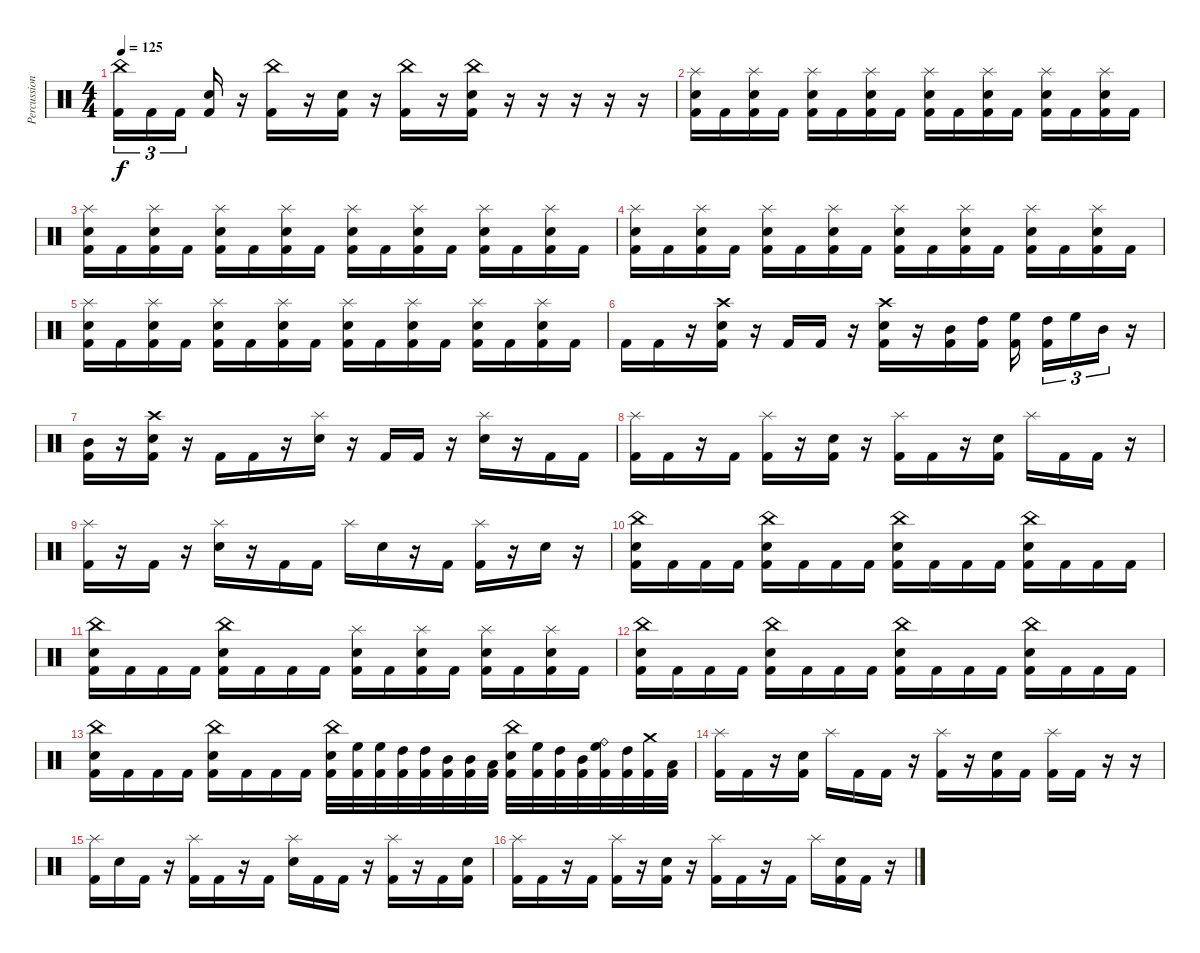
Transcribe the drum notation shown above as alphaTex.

\track ("Percussion" "Percussion") {instrument percussion}
\staff {score}
\articulation defaults
\ts (4 4)
\tempo 125
\clef neutral
\ks c
("China (hit)" "Kick (hit) 2").16{tu (3 2) dy f} "Kick (hit) 2".16{tu (3 2)} "Kick (hit) 2".16{tu (3 2) beam splitsecondary} ("Electric Snare (hit)" "Kick (hit) 2").16 r.16 ("China (hit)" "Kick (hit) 2").16 r.16 ("Electric Snare (hit)" "Kick (hit) 2").16 r.16 ("China (hit)" "Kick (hit) 2").16 r.16 ("China (hit)" "Electric Snare (hit)" "Kick (hit) 2").16 r.16 r.16 r.16 r.16 r.16 |
("Splash (hit)" "Electric Snare (hit)" "Kick (hit) 2").16 "Kick (hit) 2".16 ("Splash (hit)" "Electric Snare (hit)" "Kick (hit) 2").16 "Kick (hit) 2".16 ("Splash (hit)" "Electric Snare (hit)" "Kick (hit) 2").16 "Kick (hit) 2".16 ("Splash (hit)" "Electric Snare (hit)" "Kick (hit) 2").16 "Kick (hit) 2".16 ("Splash (hit)" "Electric Snare (hit)" "Kick (hit) 2").16 "Kick (hit) 2".16 ("Splash (hit)" "Electric Snare (hit)" "Kick (hit) 2").16 "Kick (hit) 2".16 ("Splash (hit)" "Electric Snare (hit)" "Kick (hit) 2").16 "Kick (hit) 2".16 ("Splash (hit)" "Electric Snare (hit)" "Kick (hit) 2").16 "Kick (hit) 2".16 |
("Splash (hit)" "Electric Snare (hit)" "Kick (hit) 2").16 "Kick (hit) 2".16 ("Splash (hit)" "Electric Snare (hit)" "Kick (hit) 2").16 "Kick (hit) 2".16 ("Splash (hit)" "Electric Snare (hit)" "Kick (hit) 2").16 "Kick (hit) 2".16 ("Splash (hit)" "Electric Snare (hit)" "Kick (hit) 2").16 "Kick (hit) 2".16 ("Splash (hit)" "Electric Snare (hit)" "Kick (hit) 2").16 "Kick (hit) 2".16 ("Splash (hit)" "Electric Snare (hit)" "Kick (hit) 2").16 "Kick (hit) 2".16 ("Splash (hit)" "Electric Snare (hit)" "Kick (hit) 2").16 "Kick (hit) 2".16 ("Splash (hit)" "Electric Snare (hit)" "Kick (hit) 2").16 "Kick (hit) 2".16 |
("Splash (hit)" "Electric Snare (hit)" "Kick (hit) 2").16 "Kick (hit) 2".16 ("Splash (hit)" "Electric Snare (hit)" "Kick (hit) 2").16 "Kick (hit) 2".16 ("Splash (hit)" "Electric Snare (hit)" "Kick (hit) 2").16 "Kick (hit) 2".16 ("Splash (hit)" "Electric Snare (hit)" "Kick (hit) 2").16 "Kick (hit) 2".16 ("Splash (hit)" "Electric Snare (hit)" "Kick (hit) 2").16 "Kick (hit) 2".16 ("Splash (hit)" "Electric Snare (hit)" "Kick (hit) 2").16 "Kick (hit) 2".16 ("Splash (hit)" "Electric Snare (hit)" "Kick (hit) 2").16 "Kick (hit) 2".16 ("Splash (hit)" "Electric Snare (hit)" "Kick (hit) 2").16 "Kick (hit) 2".16 |
("Splash (hit)" "Electric Snare (hit)" "Kick (hit) 2").16 "Kick (hit) 2".16 ("Splash (hit)" "Electric Snare (hit)" "Kick (hit) 2").16 "Kick (hit) 2".16 ("Splash (hit)" "Electric Snare (hit)" "Kick (hit) 2").16 "Kick (hit) 2".16 ("Splash (hit)" "Electric Snare (hit)" "Kick (hit) 2").16 "Kick (hit) 2".16 ("Splash (hit)" "Electric Snare (hit)" "Kick (hit) 2").16 "Kick (hit) 2".16 ("Splash (hit)" "Electric Snare (hit)" "Kick (hit) 2").16 "Kick (hit) 2".16 ("Splash (hit)" "Electric Snare (hit)" "Kick (hit) 2").16 "Kick (hit) 2".16 ("Splash (hit)" "Electric Snare (hit)" "Kick (hit) 2").16 "Kick (hit) 2".16 |
"Kick (hit) 2".16 "Kick (hit) 2".16 r.16 ("Crash high (hit)" "Electric Snare (hit)" "Kick (hit) 2").16 r.16 "Kick (hit) 2".16 "Kick (hit) 2".16 r.16 ("Crash high (hit)" "Electric Snare (hit)" "Kick (hit) 2").16 r.16 ("Mid Tom (hit)" "Kick (hit) 2").16 ("High Tom (hit)" "Kick (hit) 2").16 ("High Floor Tom (hit)" "Kick (hit) 2").16{beam splitsecondary} ("High Tom (hit)" "Kick (hit) 2").16{tu (3 2)} "High Floor Tom (hit)".16{tu (3 2)} "Mid Tom (hit)".16{tu (3 2)} r.16 |
("Mid Tom (hit)" "Kick (hit) 2").16 r.16 ("Crash high (hit)" "Electric Snare (hit)" "Kick (hit) 2").16 r.16 "Kick (hit) 2".16 "Kick (hit) 2".16 r.16 ("Splash (hit)" "Electric Snare (hit)").16 r.16 "Kick (hit) 2".16 "Kick (hit) 2".16 r.16 ("Splash (hit)" "Electric Snare (hit)").16 r.16 "Kick (hit) 2".16 "Kick (hit) 2".16 |
("Splash (hit)" "Kick (hit) 2").16 "Kick (hit) 2".16 r.16 "Kick (hit) 2".16 ("Splash (hit)" "Kick (hit) 2").16 r.16 ("Electric Snare (hit)" "Kick (hit) 2").16 r.16 ("Splash (hit)" "Kick (hit) 2").16 "Kick (hit) 2".16 r.16 ("Electric Snare (hit)" "Kick (hit) 2").16 "Splash (hit)".16 "Kick (hit) 2".16 "Kick (hit) 2".16 r.16 |
("Splash (hit)" "Kick (hit) 2").16 r.16 "Kick (hit) 2".16 r.16 ("Splash (hit)" "Electric Snare (hit)").16 r.16 "Kick (hit) 2".16 "Kick (hit) 2".16 "Splash (hit)".16 "Electric Snare (hit)".16 r.16 "Kick (hit) 2".16 ("Splash (hit)" "Kick (hit) 2").16 r.16 "Electric Snare (hit)".16 r.16 |
("China (hit)" "Electric Snare (hit)" "Kick (hit) 2").16 "Kick (hit) 2".16 "Kick (hit) 2".16 "Kick (hit) 2".16 ("China (hit)" "Electric Snare (hit)" "Kick (hit) 2").16 "Kick (hit) 2".16 "Kick (hit) 2".16 "Kick (hit) 2".16 ("China (hit)" "Electric Snare (hit)" "Kick (hit) 2").16 "Kick (hit) 2".16 "Kick (hit) 2".16 "Kick (hit) 2".16 ("China (hit)" "Electric Snare (hit)" "Kick (hit) 2").16 "Kick (hit) 2".16 "Kick (hit) 2".16 "Kick (hit) 2".16 |
("China (hit)" "Electric Snare (hit)" "Kick (hit) 2").16 "Kick (hit) 2".16 "Kick (hit) 2".16 "Kick (hit) 2".16 ("China (hit)" "Electric Snare (hit)" "Kick (hit) 2").16 "Kick (hit) 2".16 "Kick (hit) 2".16 "Kick (hit) 2".16 ("Splash (hit)" "Electric Snare (hit)" "Kick (hit) 2").16 "Kick (hit) 2".16 ("Splash (hit)" "Electric Snare (hit)" "Kick (hit) 2").16 "Kick (hit) 2".16 ("Splash (hit)" "Electric Snare (hit)" "Kick (hit) 2").16 "Kick (hit) 2".16 ("Splash (hit)" "Electric Snare (hit)" "Kick (hit) 2").16 "Kick (hit) 2".16 |
("China (hit)" "Electric Snare (hit)" "Kick (hit) 2").16 "Kick (hit) 2".16 "Kick (hit) 2".16 "Kick (hit) 2".16 ("China (hit)" "Electric Snare (hit)" "Kick (hit) 2").16 "Kick (hit) 2".16 "Kick (hit) 2".16 "Kick (hit) 2".16 ("China (hit)" "Electric Snare (hit)" "Kick (hit) 2").16 "Kick (hit) 2".16 "Kick (hit) 2".16 "Kick (hit) 2".16 ("China (hit)" "Electric Snare (hit)" "Kick (hit) 2").16 "Kick (hit) 2".16 "Kick (hit) 2".16 "Kick (hit) 2".16 |
("China (hit)" "Electric Snare (hit)" "Kick (hit) 2").16 "Kick (hit) 2".16 "Kick (hit) 2".16 "Kick (hit) 2".16 ("China (hit)" "Electric Snare (hit)" "Kick (hit) 2").16 "Kick (hit) 2".16 "Kick (hit) 2".16 "Kick (hit) 2".16 ("China (hit)" "Electric Snare (hit)" "Kick (hit) 2").32 ("High Floor Tom (hit)" "Kick (hit) 2").32 ("High Floor Tom (hit)" "Kick (hit) 2").32 ("High Tom (hit)" "Kick (hit) 2").32 ("High Tom (hit)" "Kick (hit) 2").32 ("Mid Tom (hit)" "Kick (hit) 2").32 ("Mid Tom (hit)" "Kick (hit) 2").32 ("Low Tom (hit)" "Kick (hit) 2").32 ("China (hit)" "Electric Snare (hit)" "Kick (hit) 2").32 ("High Floor Tom (hit)" "Kick (hit) 2").32 ("High Tom (hit)" "Kick (hit) 2").32 ("Mid Tom (hit)" "Kick (hit) 2").32 ("Ride (bell)" "High Floor Tom (hit)" "Kick (hit) 2").32 ("High Tom (hit)" "Kick (hit) 2").32 ("Crash medium (hit)" "Kick (hit) 2").32 ("Low Tom (hit)" "Kick (hit) 2").32 |
("Splash (hit)" "Kick (hit) 2").16 "Kick (hit) 2".16 r.16 ("Electric Snare (hit)" "Kick (hit) 2").16 "Splash (hit)".16 "Kick (hit) 2".16 "Kick (hit) 2".16 r.16 ("Splash (hit)" "Kick (hit) 2").16 r.16 ("Electric Snare (hit)" "Kick (hit) 2").16 "Kick (hit) 2".16 ("Splash (hit)" "Kick (hit) 2").16 "Kick (hit) 2".16 r.16 r.16 |
("Splash (hit)" "Kick (hit) 2").16 "Electric Snare (hit)".16 "Kick (hit) 2".16 r.16 ("Splash (hit)" "Kick (hit) 2").16 "Kick (hit) 2".16 r.16 "Kick (hit) 2".16 ("Splash (hit)" "Electric Snare (hit)").16 "Kick (hit) 2".16 "Kick (hit) 2".16 r.16 ("Splash (hit)" "Kick (hit) 2").16 r.16 "Kick (hit) 2".16 ("Electric Snare (hit)" "Kick (hit) 2").16 |
("Splash (hit)" "Kick (hit) 2").16 "Kick (hit) 2".16 r.16 "Kick (hit) 2".16 ("Splash (hit)" "Kick (hit) 2").16 r.16 ("Electric Snare (hit)" "Kick (hit) 2").16 r.16 ("Splash (hit)" "Kick (hit) 2").16 "Kick (hit) 2".16 r.16 "Kick (hit) 2".16 "Splash (hit)".16 ("Electric Snare (hit)" "Kick (hit) 2").16 "Kick (hit) 2".16 r.16
